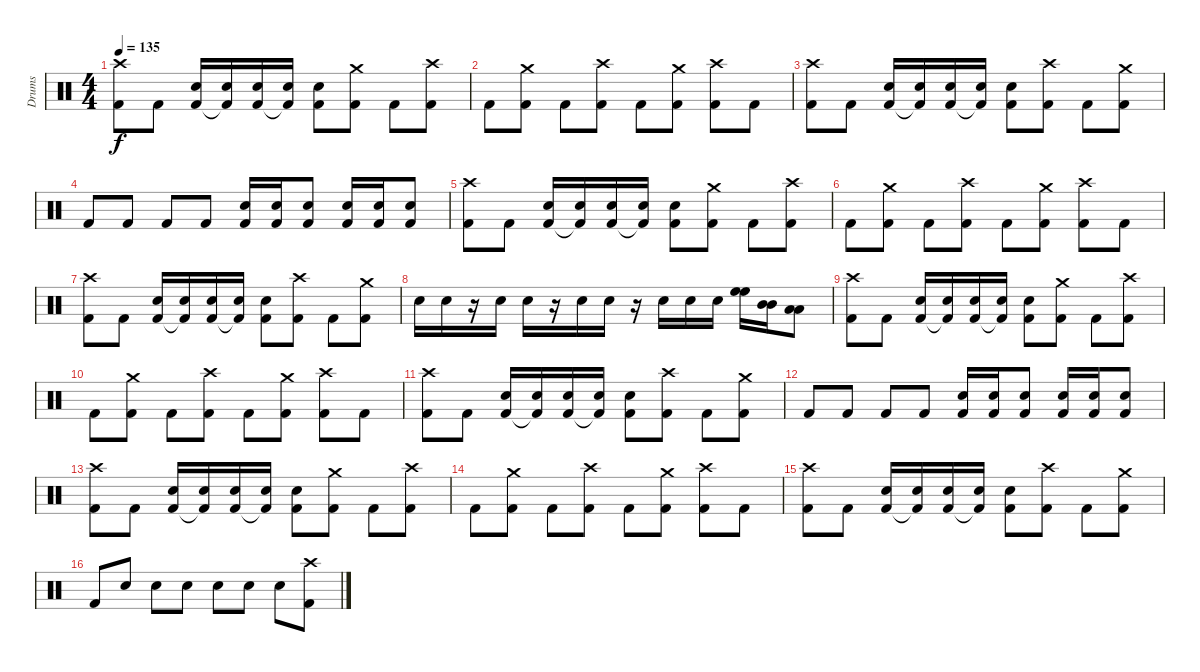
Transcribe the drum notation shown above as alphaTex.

\track ("Drums" "Drums") {instrument percussion}
\staff {score}
\articulation defaults
\ts (4 4)
\tempo 135
\clef neutral
\ks c
("Crash high (hit)" "Kick (hit) 2").8{dy f} "Kick (hit) 2".8 ("Snare (hit) 2" "Kick (hit) 2").16 ("Snare (hit) 2" "Kick (hit) 2"{t}).16 ("Snare (hit) 2" "Kick (hit) 2").16 ("Snare (hit) 2" "Kick (hit) 2"{t}).16 ("Snare (hit) 2" "Kick (hit) 2").8 ("Crash medium (hit)" "Kick (hit) 2").8 "Kick (hit) 2".8 ("Crash high (hit)" "Kick (hit) 2").8 |
"Kick (hit) 2".8 ("Crash medium (hit)" "Kick (hit) 2").8 "Kick (hit) 2".8 ("Crash high (hit)" "Kick (hit) 2").8 "Kick (hit) 2".8 ("Crash medium (hit)" "Kick (hit) 2").8 ("Crash high (hit)" "Kick (hit) 2").8 "Kick (hit) 2".8 |
("Crash high (hit)" "Kick (hit) 2").8 "Kick (hit) 2".8 ("Snare (hit) 2" "Kick (hit) 2").16 ("Snare (hit) 2" "Kick (hit) 2"{t}).16 ("Snare (hit) 2" "Kick (hit) 2").16 ("Snare (hit) 2" "Kick (hit) 2"{t}).16 ("Snare (hit) 2" "Kick (hit) 2").8 ("Crash high (hit)" "Kick (hit) 2").8 "Kick (hit) 2".8 ("Crash medium (hit)" "Kick (hit) 2").8 |
"Kick (hit) 2".8 "Kick (hit) 2".8 "Kick (hit) 2".8 "Kick (hit) 2".8 ("Snare (hit) 2" "Kick (hit) 2").16 ("Snare (hit) 2" "Kick (hit) 2").16 ("Snare (hit) 2" "Kick (hit) 2").8 ("Snare (hit) 2" "Kick (hit) 2").16 ("Snare (hit) 2" "Kick (hit) 2").16 ("Snare (hit) 2" "Kick (hit) 2").8 |
("Crash high (hit)" "Kick (hit) 2").8 "Kick (hit) 2".8 ("Snare (hit) 2" "Kick (hit) 2").16 ("Snare (hit) 2" "Kick (hit) 2"{t}).16 ("Snare (hit) 2" "Kick (hit) 2").16 ("Snare (hit) 2" "Kick (hit) 2"{t}).16 ("Snare (hit) 2" "Kick (hit) 2").8 ("Crash medium (hit)" "Kick (hit) 2").8 "Kick (hit) 2".8 ("Crash high (hit)" "Kick (hit) 2").8 |
"Kick (hit) 2".8 ("Crash medium (hit)" "Kick (hit) 2").8 "Kick (hit) 2".8 ("Crash high (hit)" "Kick (hit) 2").8 "Kick (hit) 2".8 ("Crash medium (hit)" "Kick (hit) 2").8 ("Crash high (hit)" "Kick (hit) 2").8 "Kick (hit) 2".8 |
("Crash high (hit)" "Kick (hit) 2").8 "Kick (hit) 2".8 ("Snare (hit) 2" "Kick (hit) 2").16 ("Snare (hit) 2" "Kick (hit) 2"{t}).16 ("Snare (hit) 2" "Kick (hit) 2").16 ("Snare (hit) 2" "Kick (hit) 2"{t}).16 ("Snare (hit) 2" "Kick (hit) 2").8 ("Crash high (hit)" "Kick (hit) 2").8 "Kick (hit) 2".8 ("Crash medium (hit)" "Kick (hit) 2").8 |
"Snare (hit) 2".16 "Snare (hit) 2".16 r.16 "Snare (hit) 2".16 "Snare (hit) 2".16 r.16 "Snare (hit) 2".16 "Snare (hit) 2".16 r.16 "Snare (hit) 2".16 "Snare (hit) 2".16 "Snare (hit) 2".16 ("High Floor Tom (hit)" "High Floor Tom (hit)").16 ("Mid Tom (hit)" "Mid Tom (hit)").16 ("Low Tom (hit)" "Low Tom (hit)").8 |
("Crash high (hit)" "Kick (hit) 2").8 "Kick (hit) 2".8 ("Snare (hit) 2" "Kick (hit) 2").16 ("Snare (hit) 2" "Kick (hit) 2"{t}).16 ("Snare (hit) 2" "Kick (hit) 2").16 ("Snare (hit) 2" "Kick (hit) 2"{t}).16 ("Snare (hit) 2" "Kick (hit) 2").8 ("Crash medium (hit)" "Kick (hit) 2").8 "Kick (hit) 2".8 ("Crash high (hit)" "Kick (hit) 2").8 |
"Kick (hit) 2".8 ("Crash medium (hit)" "Kick (hit) 2").8 "Kick (hit) 2".8 ("Crash high (hit)" "Kick (hit) 2").8 "Kick (hit) 2".8 ("Crash medium (hit)" "Kick (hit) 2").8 ("Crash high (hit)" "Kick (hit) 2").8 "Kick (hit) 2".8 |
("Crash high (hit)" "Kick (hit) 2").8 "Kick (hit) 2".8 ("Snare (hit) 2" "Kick (hit) 2").16 ("Snare (hit) 2" "Kick (hit) 2"{t}).16 ("Snare (hit) 2" "Kick (hit) 2").16 ("Snare (hit) 2" "Kick (hit) 2"{t}).16 ("Snare (hit) 2" "Kick (hit) 2").8 ("Crash high (hit)" "Kick (hit) 2").8 "Kick (hit) 2".8 ("Crash medium (hit)" "Kick (hit) 2").8 |
"Kick (hit) 2".8 "Kick (hit) 2".8 "Kick (hit) 2".8 "Kick (hit) 2".8 ("Snare (hit) 2" "Kick (hit) 2").16 ("Snare (hit) 2" "Kick (hit) 2").16 ("Snare (hit) 2" "Kick (hit) 2").8 ("Snare (hit) 2" "Kick (hit) 2").16 ("Snare (hit) 2" "Kick (hit) 2").16 ("Snare (hit) 2" "Kick (hit) 2").8 |
("Crash high (hit)" "Kick (hit) 2").8 "Kick (hit) 2".8 ("Snare (hit) 2" "Kick (hit) 2").16 ("Snare (hit) 2" "Kick (hit) 2"{t}).16 ("Snare (hit) 2" "Kick (hit) 2").16 ("Snare (hit) 2" "Kick (hit) 2"{t}).16 ("Snare (hit) 2" "Kick (hit) 2").8 ("Crash medium (hit)" "Kick (hit) 2").8 "Kick (hit) 2".8 ("Crash high (hit)" "Kick (hit) 2").8 |
"Kick (hit) 2".8 ("Crash medium (hit)" "Kick (hit) 2").8 "Kick (hit) 2".8 ("Crash high (hit)" "Kick (hit) 2").8 "Kick (hit) 2".8 ("Crash medium (hit)" "Kick (hit) 2").8 ("Crash high (hit)" "Kick (hit) 2").8 "Kick (hit) 2".8 |
("Crash high (hit)" "Kick (hit) 2").8 "Kick (hit) 2".8 ("Snare (hit) 2" "Kick (hit) 2").16 ("Snare (hit) 2" "Kick (hit) 2"{t}).16 ("Snare (hit) 2" "Kick (hit) 2").16 ("Snare (hit) 2" "Kick (hit) 2"{t}).16 ("Snare (hit) 2" "Kick (hit) 2").8 ("Crash high (hit)" "Kick (hit) 2").8 "Kick (hit) 2".8 ("Crash medium (hit)" "Kick (hit) 2").8 |
"Kick (hit) 2".8 "Snare (hit) 2".8 "Snare (hit) 2".8 "Snare (hit) 2".8 "Snare (hit) 2".8 "Snare (hit) 2".8 "Snare (hit) 2".8 ("Crash high (hit)" "Kick (hit) 2").8
